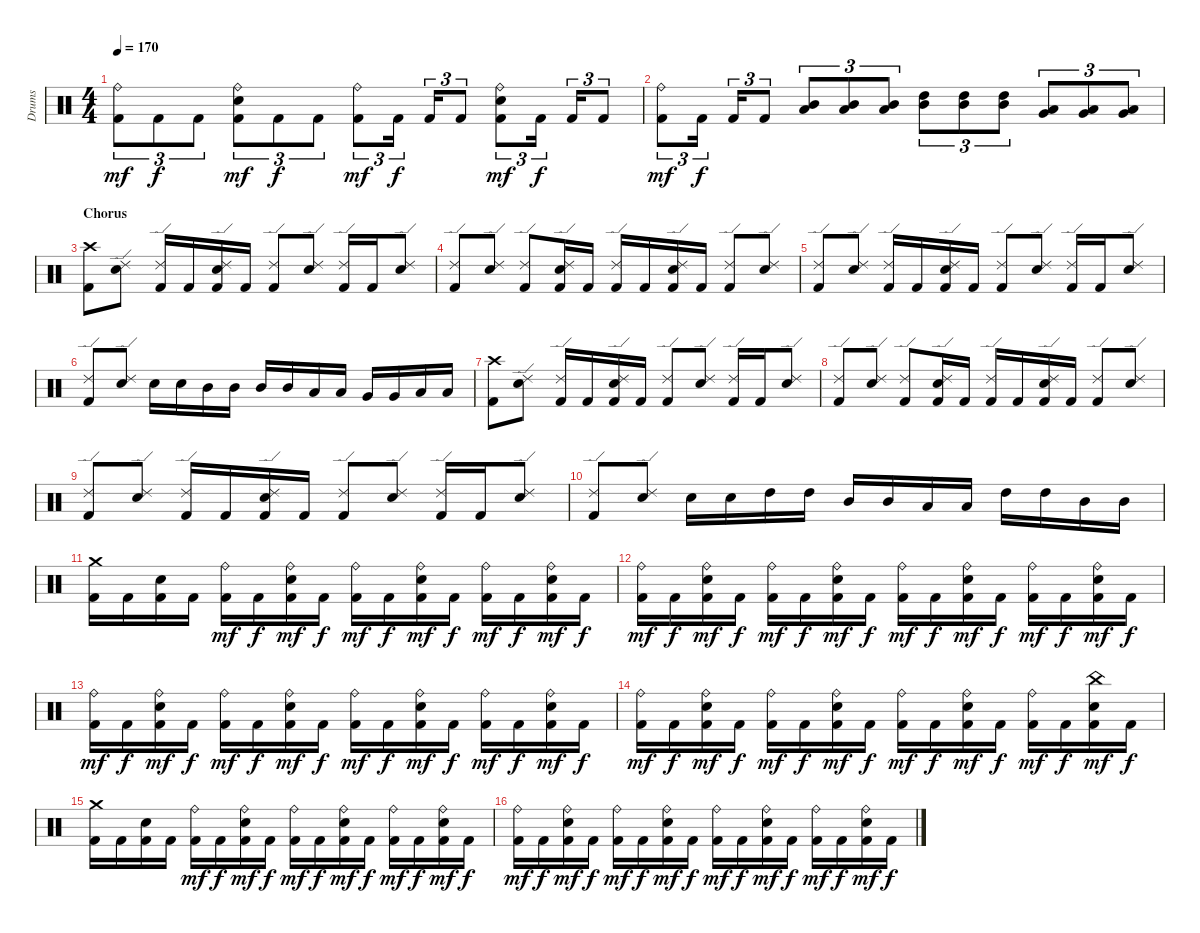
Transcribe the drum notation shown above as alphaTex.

\track ("Drums" "Drums") {instrument percussion}
\staff {score}
\articulation defaults
\ts (4 4)
\tempo 170
\clef neutral
\ks c
("Ride (bell)" "Kick (hit) 2").8{tu (3 2) dy mf} "Kick (hit) 2".8{tu (3 2) dy f} "Kick (hit) 2".8{tu (3 2)} ("Ride (bell)" "Electric Snare (hit)" "Kick (hit) 2").8{tu (3 2) dy mf} "Kick (hit) 2".8{tu (3 2) dy f} "Kick (hit) 2".8{tu (3 2)} ("Ride (bell)" "Kick (hit) 2").8{tu (3 2) dy mf} "Kick (hit) 2".16{tu (3 2) dy f} "Kick (hit) 2".16{tu (3 2)} "Kick (hit) 2".8{tu (3 2)} ("Ride (bell)" "Electric Snare (hit)" "Kick (hit) 2").8{tu (3 2) dy mf} "Kick (hit) 2".16{tu (3 2) dy f} "Kick (hit) 2".16{tu (3 2)} "Kick (hit) 2".8{tu (3 2)} |
("Ride (bell)" "Kick (hit) 2").8{tu (3 2) dy mf} "Kick (hit) 2".16{tu (3 2) dy f} "Kick (hit) 2".16{tu (3 2)} "Kick (hit) 2".8{tu (3 2)} ("Mid Tom (hit)" "Low Tom (hit)").8{tu (3 2)} ("Mid Tom (hit)" "Low Tom (hit)").8{tu (3 2)} ("Mid Tom (hit)" "Low Tom (hit)").8{tu (3 2)} ("High Tom (hit)" "Mid Tom (hit)").8{tu (3 2)} ("High Tom (hit)" "Mid Tom (hit)").8{tu (3 2)} ("High Tom (hit)" "Mid Tom (hit)").8{tu (3 2)} ("Low Tom (hit)" "Very Low Tom (hit)").8{tu (3 2)} ("Low Tom (hit)" "Very Low Tom (hit)").8{tu (3 2)} ("Low Tom (hit)" "Very Low Tom (hit)").8{tu (3 2)} |
\section ("" "Chorus")
("Crash high (hit)" "Kick (hit) 2").8 ("Ride (edge) 2" "Electric Snare (hit)").8 ("Ride (edge) 2" "Kick (hit) 2").16 "Kick (hit) 2".16 ("Ride (edge) 2" "Electric Snare (hit)" "Kick (hit) 2").16 "Kick (hit) 2".16 ("Ride (edge) 2" "Kick (hit) 2").8 ("Ride (edge) 2" "Electric Snare (hit)").8 ("Ride (edge) 2" "Kick (hit) 2").16 "Kick (hit) 2".16 ("Ride (edge) 2" "Electric Snare (hit)").8 |
("Ride (edge) 2" "Kick (hit) 2").8 ("Ride (edge) 2" "Electric Snare (hit)").8 ("Ride (edge) 2" "Kick (hit) 2").8 ("Ride (edge) 2" "Electric Snare (hit)" "Kick (hit) 2").16 "Kick (hit) 2".16 ("Ride (edge) 2" "Kick (hit) 2").16 "Kick (hit) 2".16 ("Ride (edge) 2" "Electric Snare (hit)" "Kick (hit) 2").16 "Kick (hit) 2".16 ("Ride (edge) 2" "Kick (hit) 2").8 ("Ride (edge) 2" "Electric Snare (hit)").8 |
("Ride (edge) 2" "Kick (hit) 2").8 ("Ride (edge) 2" "Electric Snare (hit)").8 ("Ride (edge) 2" "Kick (hit) 2").16 "Kick (hit) 2".16 ("Ride (edge) 2" "Electric Snare (hit)" "Kick (hit) 2").16 "Kick (hit) 2".16 ("Ride (edge) 2" "Kick (hit) 2").8 ("Ride (edge) 2" "Electric Snare (hit)").8 ("Ride (edge) 2" "Kick (hit) 2").16 "Kick (hit) 2".16 ("Ride (edge) 2" "Electric Snare (hit)").8 |
("Ride (edge) 2" "Kick (hit) 2").8 ("Ride (edge) 2" "Electric Snare (hit)").8 "Electric Snare (hit)".16 "Electric Snare (hit)".16 "Mid Tom (hit)".16 "Mid Tom (hit)".16 "Mid Tom (hit)".16 "Mid Tom (hit)".16 "Low Tom (hit)".16 "Low Tom (hit)".16 "Very Low Tom (hit)".16 "Very Low Tom (hit)".16 "Low Floor Tom (hit)".16 "Low Floor Tom (hit)".16 |
("Crash high (hit)" "Kick (hit) 2").8 ("Ride (edge) 2" "Electric Snare (hit)").8 ("Ride (edge) 2" "Kick (hit) 2").16 "Kick (hit) 2".16 ("Ride (edge) 2" "Electric Snare (hit)" "Kick (hit) 2").16 "Kick (hit) 2".16 ("Ride (edge) 2" "Kick (hit) 2").8 ("Ride (edge) 2" "Electric Snare (hit)").8 ("Ride (edge) 2" "Kick (hit) 2").16 "Kick (hit) 2".16 ("Ride (edge) 2" "Electric Snare (hit)").8 |
("Ride (edge) 2" "Kick (hit) 2").8 ("Ride (edge) 2" "Electric Snare (hit)").8 ("Ride (edge) 2" "Kick (hit) 2").8 ("Ride (edge) 2" "Electric Snare (hit)" "Kick (hit) 2").16 "Kick (hit) 2".16 ("Ride (edge) 2" "Kick (hit) 2").16 "Kick (hit) 2".16 ("Ride (edge) 2" "Electric Snare (hit)" "Kick (hit) 2").16 "Kick (hit) 2".16 ("Ride (edge) 2" "Kick (hit) 2").8 ("Ride (edge) 2" "Electric Snare (hit)").8 |
("Ride (edge) 2" "Kick (hit) 2").8 ("Ride (edge) 2" "Electric Snare (hit)").8 ("Ride (edge) 2" "Kick (hit) 2").16 "Kick (hit) 2".16 ("Ride (edge) 2" "Electric Snare (hit)" "Kick (hit) 2").16 "Kick (hit) 2".16 ("Ride (edge) 2" "Kick (hit) 2").8 ("Ride (edge) 2" "Electric Snare (hit)").8 ("Ride (edge) 2" "Kick (hit) 2").16 "Kick (hit) 2".16 ("Ride (edge) 2" "Electric Snare (hit)").8 |
("Ride (edge) 2" "Kick (hit) 2").8 ("Ride (edge) 2" "Electric Snare (hit)").8 "Electric Snare (hit)".16 "Electric Snare (hit)".16 "High Tom (hit)".16 "High Tom (hit)".16 "Mid Tom (hit)".16 "Mid Tom (hit)".16 "Low Tom (hit)".16 "Low Tom (hit)".16 "High Tom (hit)".16 "High Tom (hit)".16 "Mid Tom (hit)".16 "Mid Tom (hit)".16 |
("Crash medium (hit)" "Kick (hit) 2").16 "Kick (hit) 2".16 ("Electric Snare (hit)" "Kick (hit) 2").16 "Kick (hit) 2".16 ("Ride (bell)" "Kick (hit) 2").16{dy mf} "Kick (hit) 2".16{dy f} ("Ride (bell)" "Electric Snare (hit)" "Kick (hit) 2").16{dy mf} "Kick (hit) 2".16{dy f} ("Ride (bell)" "Kick (hit) 2").16{dy mf} "Kick (hit) 2".16{dy f} ("Ride (bell)" "Electric Snare (hit)" "Kick (hit) 2").16{dy mf} "Kick (hit) 2".16{dy f} ("Ride (bell)" "Kick (hit) 2").16{dy mf} "Kick (hit) 2".16{dy f} ("Ride (bell)" "Electric Snare (hit)" "Kick (hit) 2").16{dy mf} "Kick (hit) 2".16{dy f} |
("Ride (bell)" "Kick (hit) 2").16{dy mf} "Kick (hit) 2".16{dy f} ("Ride (bell)" "Electric Snare (hit)" "Kick (hit) 2").16{dy mf} "Kick (hit) 2".16{dy f} ("Ride (bell)" "Kick (hit) 2").16{dy mf} "Kick (hit) 2".16{dy f} ("Ride (bell)" "Electric Snare (hit)" "Kick (hit) 2").16{dy mf} "Kick (hit) 2".16{dy f} ("Ride (bell)" "Kick (hit) 2").16{dy mf} "Kick (hit) 2".16{dy f} ("Ride (bell)" "Electric Snare (hit)" "Kick (hit) 2").16{dy mf} "Kick (hit) 2".16{dy f} ("Ride (bell)" "Kick (hit) 2").16{dy mf} "Kick (hit) 2".16{dy f} ("Ride (bell)" "Electric Snare (hit)" "Kick (hit) 2").16{dy mf} "Kick (hit) 2".16{dy f} |
("Ride (bell)" "Kick (hit) 2").16{dy mf} "Kick (hit) 2".16{dy f} ("Ride (bell)" "Electric Snare (hit)" "Kick (hit) 2").16{dy mf} "Kick (hit) 2".16{dy f} ("Ride (bell)" "Kick (hit) 2").16{dy mf} "Kick (hit) 2".16{dy f} ("Ride (bell)" "Electric Snare (hit)" "Kick (hit) 2").16{dy mf} "Kick (hit) 2".16{dy f} ("Ride (bell)" "Kick (hit) 2").16{dy mf} "Kick (hit) 2".16{dy f} ("Ride (bell)" "Electric Snare (hit)" "Kick (hit) 2").16{dy mf} "Kick (hit) 2".16{dy f} ("Ride (bell)" "Kick (hit) 2").16{dy mf} "Kick (hit) 2".16{dy f} ("Ride (bell)" "Electric Snare (hit)" "Kick (hit) 2").16{dy mf} "Kick (hit) 2".16{dy f} |
("Ride (bell)" "Kick (hit) 2").16{dy mf} "Kick (hit) 2".16{dy f} ("Ride (bell)" "Electric Snare (hit)" "Kick (hit) 2").16{dy mf} "Kick (hit) 2".16{dy f} ("Ride (bell)" "Kick (hit) 2").16{dy mf} "Kick (hit) 2".16{dy f} ("Ride (bell)" "Electric Snare (hit)" "Kick (hit) 2").16{dy mf} "Kick (hit) 2".16{dy f} ("Ride (bell)" "Kick (hit) 2").16{dy mf} "Kick (hit) 2".16{dy f} ("Ride (bell)" "Electric Snare (hit)" "Kick (hit) 2").16{dy mf} "Kick (hit) 2".16{dy f} ("Ride (bell)" "Kick (hit) 2").16{dy mf} "Kick (hit) 2".16{dy f} ("China (hit)" "Electric Snare (hit)" "Kick (hit) 2").16{dy mf} "Kick (hit) 2".16{dy f} |
("Crash medium (hit)" "Kick (hit) 2").16 "Kick (hit) 2".16 ("Electric Snare (hit)" "Kick (hit) 2").16 "Kick (hit) 2".16 ("Ride (bell)" "Kick (hit) 2").16{dy mf} "Kick (hit) 2".16{dy f} ("Ride (bell)" "Electric Snare (hit)" "Kick (hit) 2").16{dy mf} "Kick (hit) 2".16{dy f} ("Ride (bell)" "Kick (hit) 2").16{dy mf} "Kick (hit) 2".16{dy f} ("Ride (bell)" "Electric Snare (hit)" "Kick (hit) 2").16{dy mf} "Kick (hit) 2".16{dy f} ("Ride (bell)" "Kick (hit) 2").16{dy mf} "Kick (hit) 2".16{dy f} ("Ride (bell)" "Electric Snare (hit)" "Kick (hit) 2").16{dy mf} "Kick (hit) 2".16{dy f} |
("Ride (bell)" "Kick (hit) 2").16{dy mf} "Kick (hit) 2".16{dy f} ("Ride (bell)" "Electric Snare (hit)" "Kick (hit) 2").16{dy mf} "Kick (hit) 2".16{dy f} ("Ride (bell)" "Kick (hit) 2").16{dy mf} "Kick (hit) 2".16{dy f} ("Ride (bell)" "Electric Snare (hit)" "Kick (hit) 2").16{dy mf} "Kick (hit) 2".16{dy f} ("Ride (bell)" "Kick (hit) 2").16{dy mf} "Kick (hit) 2".16{dy f} ("Ride (bell)" "Electric Snare (hit)" "Kick (hit) 2").16{dy mf} "Kick (hit) 2".16{dy f} ("Ride (bell)" "Kick (hit) 2").16{dy mf} "Kick (hit) 2".16{dy f} ("Ride (bell)" "Electric Snare (hit)" "Kick (hit) 2").16{dy mf} "Kick (hit) 2".16{dy f}
